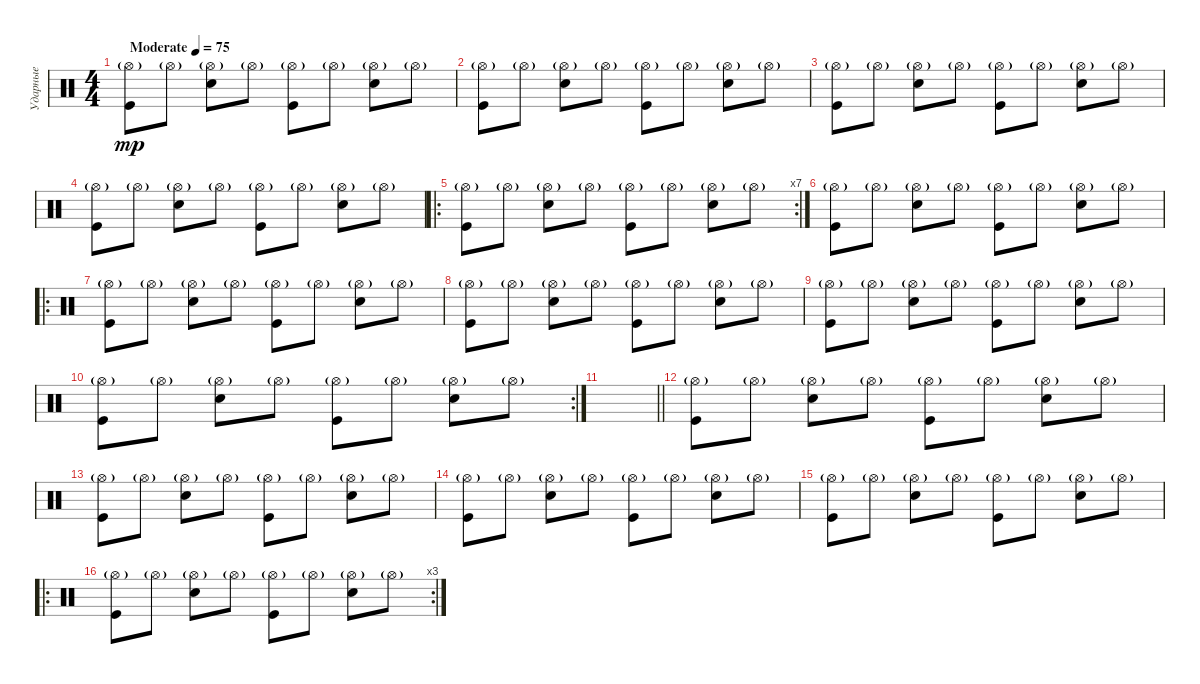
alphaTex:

\track ("Ударные" "Ударные") {instrument percussion}
\staff {score}
\articulation defaults
\ts (4 4)
\tempo (75 "Moderate")
\clef neutral
\ks c
("Kick (hit)" "Hi-Hat (open)"{g}).8{dy mp} "Hi-Hat (open)"{g}.8 ("Snare (hit) 2" "Hi-Hat (open)"{g}).8 "Hi-Hat (open)"{g}.8 ("Kick (hit)" "Hi-Hat (open)"{g}).8 "Hi-Hat (open)"{g}.8 ("Snare (hit) 2" "Hi-Hat (open)"{g}).8 "Hi-Hat (open)"{g}.8 |
("Kick (hit)" "Hi-Hat (open)"{g}).8 "Hi-Hat (open)"{g}.8 ("Snare (hit) 2" "Hi-Hat (open)"{g}).8 "Hi-Hat (open)"{g}.8 ("Kick (hit)" "Hi-Hat (open)"{g}).8 "Hi-Hat (open)"{g}.8 ("Snare (hit) 2" "Hi-Hat (open)"{g}).8 "Hi-Hat (open)"{g}.8 |
("Kick (hit)" "Hi-Hat (open)"{g}).8 "Hi-Hat (open)"{g}.8 ("Snare (hit) 2" "Hi-Hat (open)"{g}).8 "Hi-Hat (open)"{g}.8 ("Kick (hit)" "Hi-Hat (open)"{g}).8 "Hi-Hat (open)"{g}.8 ("Snare (hit) 2" "Hi-Hat (open)"{g}).8 "Hi-Hat (open)"{g}.8 |
("Kick (hit)" "Hi-Hat (open)"{g}).8 "Hi-Hat (open)"{g}.8 ("Snare (hit) 2" "Hi-Hat (open)"{g}).8 "Hi-Hat (open)"{g}.8 ("Kick (hit)" "Hi-Hat (open)"{g}).8 "Hi-Hat (open)"{g}.8 ("Snare (hit) 2" "Hi-Hat (open)"{g}).8 "Hi-Hat (open)"{g}.8 |
\ro
\rc 7
("Kick (hit)" "Hi-Hat (open)"{g}).8 "Hi-Hat (open)"{g}.8 ("Snare (hit) 2" "Hi-Hat (open)"{g}).8 "Hi-Hat (open)"{g}.8 ("Kick (hit)" "Hi-Hat (open)"{g}).8 "Hi-Hat (open)"{g}.8 ("Snare (hit) 2" "Hi-Hat (open)"{g}).8 "Hi-Hat (open)"{g}.8 |
("Kick (hit)" "Hi-Hat (open)"{g}).8 "Hi-Hat (open)"{g}.8 ("Snare (hit) 2" "Hi-Hat (open)"{g}).8 "Hi-Hat (open)"{g}.8 ("Kick (hit)" "Hi-Hat (open)"{g}).8 "Hi-Hat (open)"{g}.8 ("Snare (hit) 2" "Hi-Hat (open)"{g}).8 "Hi-Hat (open)"{g}.8 |
\ro
("Kick (hit)" "Hi-Hat (open)"{g}).8 "Hi-Hat (open)"{g}.8 ("Snare (hit) 2" "Hi-Hat (open)"{g}).8 "Hi-Hat (open)"{g}.8 ("Kick (hit)" "Hi-Hat (open)"{g}).8 "Hi-Hat (open)"{g}.8 ("Snare (hit) 2" "Hi-Hat (open)"{g}).8 "Hi-Hat (open)"{g}.8 |
("Kick (hit)" "Hi-Hat (open)"{g}).8 "Hi-Hat (open)"{g}.8 ("Snare (hit) 2" "Hi-Hat (open)"{g}).8 "Hi-Hat (open)"{g}.8 ("Kick (hit)" "Hi-Hat (open)"{g}).8 "Hi-Hat (open)"{g}.8 ("Snare (hit) 2" "Hi-Hat (open)"{g}).8 "Hi-Hat (open)"{g}.8 |
("Kick (hit)" "Hi-Hat (open)"{g}).8 "Hi-Hat (open)"{g}.8 ("Snare (hit) 2" "Hi-Hat (open)"{g}).8 "Hi-Hat (open)"{g}.8 ("Kick (hit)" "Hi-Hat (open)"{g}).8 "Hi-Hat (open)"{g}.8 ("Snare (hit) 2" "Hi-Hat (open)"{g}).8 "Hi-Hat (open)"{g}.8 |
\rc 2
("Kick (hit)" "Hi-Hat (open)"{g}).8 "Hi-Hat (open)"{g}.8 ("Snare (hit) 2" "Hi-Hat (open)"{g}).8 "Hi-Hat (open)"{g}.8 ("Kick (hit)" "Hi-Hat (open)"{g}).8 "Hi-Hat (open)"{g}.8 ("Snare (hit) 2" "Hi-Hat (open)"{g}).8 "Hi-Hat (open)"{g}.8 |
\barLineRight lightlight
|
("Kick (hit)" "Hi-Hat (open)"{g}).8 "Hi-Hat (open)"{g}.8 ("Snare (hit) 2" "Hi-Hat (open)"{g}).8 "Hi-Hat (open)"{g}.8 ("Kick (hit)" "Hi-Hat (open)"{g}).8 "Hi-Hat (open)"{g}.8 ("Snare (hit) 2" "Hi-Hat (open)"{g}).8 "Hi-Hat (open)"{g}.8 |
("Kick (hit)" "Hi-Hat (open)"{g}).8 "Hi-Hat (open)"{g}.8 ("Snare (hit) 2" "Hi-Hat (open)"{g}).8 "Hi-Hat (open)"{g}.8 ("Kick (hit)" "Hi-Hat (open)"{g}).8 "Hi-Hat (open)"{g}.8 ("Snare (hit) 2" "Hi-Hat (open)"{g}).8 "Hi-Hat (open)"{g}.8 |
("Kick (hit)" "Hi-Hat (open)"{g}).8 "Hi-Hat (open)"{g}.8 ("Snare (hit) 2" "Hi-Hat (open)"{g}).8 "Hi-Hat (open)"{g}.8 ("Kick (hit)" "Hi-Hat (open)"{g}).8 "Hi-Hat (open)"{g}.8 ("Snare (hit) 2" "Hi-Hat (open)"{g}).8 "Hi-Hat (open)"{g}.8 |
("Kick (hit)" "Hi-Hat (open)"{g}).8 "Hi-Hat (open)"{g}.8 ("Snare (hit) 2" "Hi-Hat (open)"{g}).8 "Hi-Hat (open)"{g}.8 ("Kick (hit)" "Hi-Hat (open)"{g}).8 "Hi-Hat (open)"{g}.8 ("Snare (hit) 2" "Hi-Hat (open)"{g}).8 "Hi-Hat (open)"{g}.8 |
\ro
\rc 3
("Kick (hit)" "Hi-Hat (open)"{g}).8 "Hi-Hat (open)"{g}.8 ("Snare (hit) 2" "Hi-Hat (open)"{g}).8 "Hi-Hat (open)"{g}.8 ("Kick (hit)" "Hi-Hat (open)"{g}).8 "Hi-Hat (open)"{g}.8 ("Snare (hit) 2" "Hi-Hat (open)"{g}).8 "Hi-Hat (open)"{g}.8
